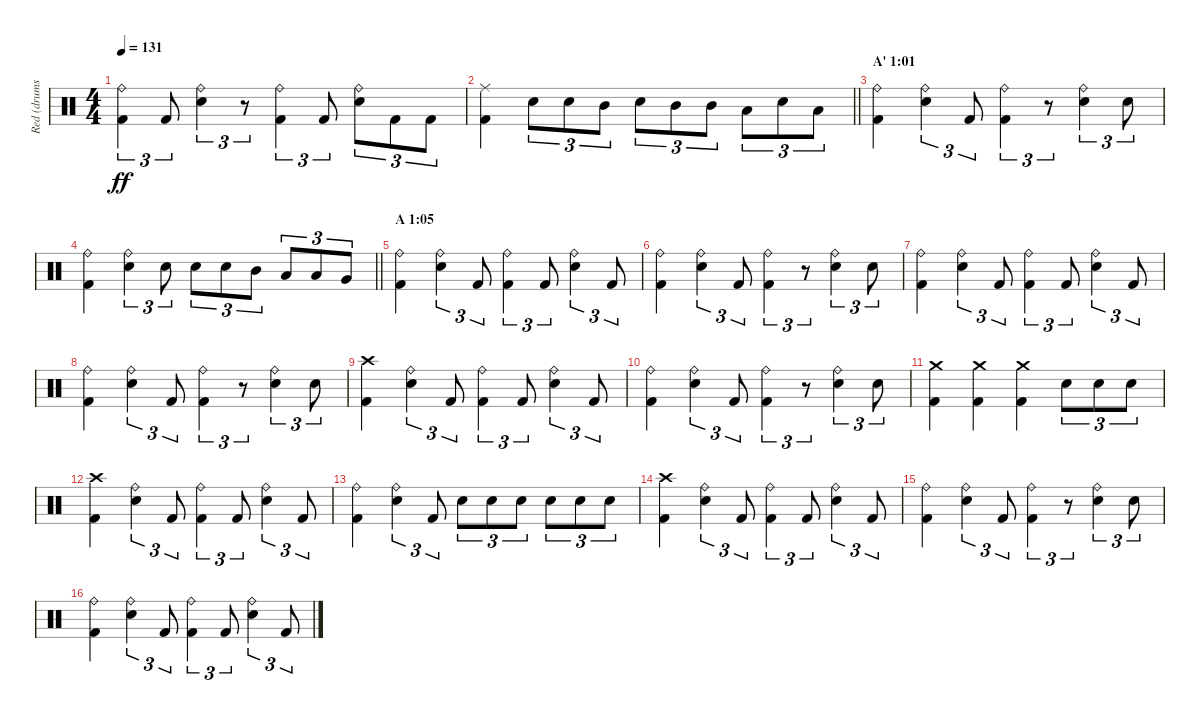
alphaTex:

\track ("Red (drums)" "Red (drums") {instrument percussion}
\staff {score}
\articulation defaults
\ts (4 4)
\tempo 131
\clef neutral
\ks c
("Ride (bell)" "Kick (hit) 2").4{tu (3 2) dy ff} "Kick (hit) 2".8{tu (3 2)} ("Ride (bell)" "Electric Snare (hit)").4{tu (3 2)} r.8{tu (3 2)} ("Ride (bell)" "Kick (hit) 2").4{tu (3 2)} "Kick (hit) 2".8{tu (3 2)} ("Ride (bell)" "Electric Snare (hit)").8{tu (3 2)} "Kick (hit) 2".8{tu (3 2)} "Kick (hit) 2".8{tu (3 2)} |
\barLineRight lightlight
("Ride (middle)" "Kick (hit) 2").4 "Electric Snare (hit)".8{tu (3 2)} "Electric Snare (hit)".8{tu (3 2)} "Mid Tom (hit)".8{tu (3 2)} "Electric Snare (hit)".8{tu (3 2)} "Mid Tom (hit)".8{tu (3 2)} "Mid Tom (hit)".8{tu (3 2)} "Low Tom (hit)".8{tu (3 2)} "Electric Snare (hit)".8{tu (3 2)} "Low Tom (hit)".8{tu (3 2)} |
\section ("" "A' 1:01")
("Ride (bell)" "Kick (hit) 2").4 ("Ride (bell)" "Electric Snare (hit)").4{tu (3 2)} "Kick (hit) 2".8{tu (3 2)} ("Ride (bell)" "Kick (hit) 2").4{tu (3 2)} r.8{tu (3 2)} ("Ride (bell)" "Electric Snare (hit)").4{tu (3 2)} "Electric Snare (hit)".8{tu (3 2)} |
\barLineRight lightlight
("Ride (bell)" "Kick (hit) 2").4 ("Ride (bell)" "Electric Snare (hit)").4{tu (3 2)} "Electric Snare (hit)".8{tu (3 2)} "Electric Snare (hit)".8{tu (3 2)} "Electric Snare (hit)".8{tu (3 2)} "Mid Tom (hit)".8{tu (3 2)} "Low Tom (hit)".8{tu (3 2)} "Low Tom (hit)".8{tu (3 2)} "Very Low Tom (hit)".8{tu (3 2)} |
\section ("" "A 1:05")
("Ride (bell)" "Kick (hit) 2").4 ("Ride (bell)" "Electric Snare (hit)").4{tu (3 2)} "Kick (hit) 2".8{tu (3 2)} ("Ride (bell)" "Kick (hit) 2").4{tu (3 2)} "Kick (hit) 2".8{tu (3 2)} ("Ride (bell)" "Electric Snare (hit)").4{tu (3 2)} "Kick (hit) 2".8{tu (3 2)} |
("Ride (bell)" "Kick (hit) 2").4 ("Ride (bell)" "Electric Snare (hit)").4{tu (3 2)} "Kick (hit) 2".8{tu (3 2)} ("Ride (bell)" "Kick (hit) 2").4{tu (3 2)} r.8{tu (3 2)} ("Ride (bell)" "Electric Snare (hit)").4{tu (3 2)} "Electric Snare (hit)".8{tu (3 2)} |
("Ride (bell)" "Kick (hit) 2").4 ("Ride (bell)" "Electric Snare (hit)").4{tu (3 2)} "Kick (hit) 2".8{tu (3 2)} ("Ride (bell)" "Kick (hit) 2").4{tu (3 2)} "Kick (hit) 2".8{tu (3 2)} ("Ride (bell)" "Electric Snare (hit)").4{tu (3 2)} "Kick (hit) 2".8{tu (3 2)} |
("Ride (bell)" "Kick (hit) 2").4 ("Ride (bell)" "Electric Snare (hit)").4{tu (3 2)} "Kick (hit) 2".8{tu (3 2)} ("Ride (bell)" "Kick (hit) 2").4{tu (3 2)} r.8{tu (3 2)} ("Ride (bell)" "Electric Snare (hit)").4{tu (3 2)} "Electric Snare (hit)".8{tu (3 2)} |
("Crash high (hit)" "Kick (hit) 2").4 ("Ride (bell)" "Electric Snare (hit)").4{tu (3 2)} "Kick (hit) 2".8{tu (3 2)} ("Ride (bell)" "Kick (hit) 2").4{tu (3 2)} "Kick (hit) 2".8{tu (3 2)} ("Ride (bell)" "Electric Snare (hit)").4{tu (3 2)} "Kick (hit) 2".8{tu (3 2)} |
("Ride (bell)" "Kick (hit) 2").4 ("Ride (bell)" "Electric Snare (hit)").4{tu (3 2)} "Kick (hit) 2".8{tu (3 2)} ("Ride (bell)" "Kick (hit) 2").4{tu (3 2)} r.8{tu (3 2)} ("Ride (bell)" "Electric Snare (hit)").4{tu (3 2)} "Electric Snare (hit)".8{tu (3 2)} |
("Crash medium (hit)" "Kick (hit) 2").4 ("Crash medium (hit)" "Kick (hit) 2").4 ("Crash medium (hit)" "Kick (hit) 2").4 "Electric Snare (hit)".8{tu (3 2)} "Electric Snare (hit)".8{tu (3 2)} "Electric Snare (hit)".8{tu (3 2)} |
("Crash high (hit)" "Kick (hit) 2").4 ("Ride (bell)" "Electric Snare (hit)").4{tu (3 2)} "Kick (hit) 2".8{tu (3 2)} ("Ride (bell)" "Kick (hit) 2").4{tu (3 2)} "Kick (hit) 2".8{tu (3 2)} ("Ride (bell)" "Electric Snare (hit)").4{tu (3 2)} "Kick (hit) 2".8{tu (3 2)} |
("Ride (bell)" "Kick (hit) 2").4 ("Ride (bell)" "Electric Snare (hit)").4{tu (3 2)} "Kick (hit) 2".8{tu (3 2)} "Electric Snare (hit)".8{tu (3 2)} "Electric Snare (hit)".8{tu (3 2)} "Electric Snare (hit)".8{tu (3 2)} "Electric Snare (hit)".8{tu (3 2)} "Electric Snare (hit)".8{tu (3 2)} "Electric Snare (hit)".8{tu (3 2)} |
("Crash high (hit)" "Kick (hit) 2").4 ("Ride (bell)" "Electric Snare (hit)").4{tu (3 2)} "Kick (hit) 2".8{tu (3 2)} ("Ride (bell)" "Kick (hit) 2").4{tu (3 2)} "Kick (hit) 2".8{tu (3 2)} ("Ride (bell)" "Electric Snare (hit)").4{tu (3 2)} "Kick (hit) 2".8{tu (3 2)} |
("Ride (bell)" "Kick (hit) 2").4 ("Ride (bell)" "Electric Snare (hit)").4{tu (3 2)} "Kick (hit) 2".8{tu (3 2)} ("Ride (bell)" "Kick (hit) 2").4{tu (3 2)} r.8{tu (3 2)} ("Ride (bell)" "Electric Snare (hit)").4{tu (3 2)} "Electric Snare (hit)".8{tu (3 2)} |
("Ride (bell)" "Kick (hit) 2").4 ("Ride (bell)" "Electric Snare (hit)").4{tu (3 2)} "Kick (hit) 2".8{tu (3 2)} ("Ride (bell)" "Kick (hit) 2").4{tu (3 2)} "Kick (hit) 2".8{tu (3 2)} ("Ride (bell)" "Electric Snare (hit)").4{tu (3 2)} "Kick (hit) 2".8{tu (3 2)}
